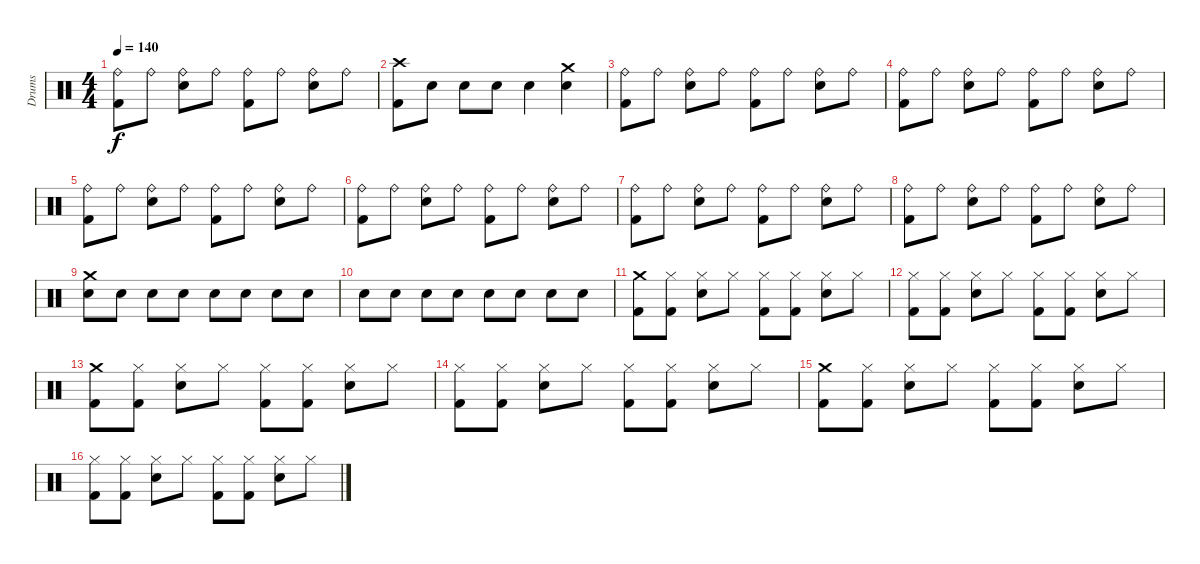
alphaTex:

\track ("Drums" "Drums") {instrument percussion}
\staff {score}
\articulation defaults
\ts (4 4)
\tempo 140
\clef neutral
\ks c
("Ride (bell)" "Kick (hit) 2").8{dy f} "Ride (bell)".8 ("Ride (bell)" "Electric Snare (hit)").8 "Ride (bell)".8 ("Ride (bell)" "Kick (hit) 2").8 "Ride (bell)".8 ("Ride (bell)" "Electric Snare (hit)").8 "Ride (bell)".8 |
("Crash high (hit)" "Kick (hit) 2").8 "Electric Snare (hit)".8 "Electric Snare (hit)".8 "Electric Snare (hit)".8 "Electric Snare (hit)".4 ("Crash medium (hit)" "Electric Snare (hit)").4 |
("Ride (bell)" "Kick (hit) 2").8 "Ride (bell)".8 ("Ride (bell)" "Electric Snare (hit)").8 "Ride (bell)".8 ("Ride (bell)" "Kick (hit) 2").8 "Ride (bell)".8 ("Ride (bell)" "Electric Snare (hit)").8 "Ride (bell)".8 |
("Ride (bell)" "Kick (hit) 2").8 "Ride (bell)".8 ("Ride (bell)" "Electric Snare (hit)").8 "Ride (bell)".8 ("Ride (bell)" "Kick (hit) 2").8 "Ride (bell)".8 ("Ride (bell)" "Electric Snare (hit)").8 "Ride (bell)".8 |
("Ride (bell)" "Kick (hit) 2").8 "Ride (bell)".8 ("Ride (bell)" "Electric Snare (hit)").8 "Ride (bell)".8 ("Ride (bell)" "Kick (hit) 2").8 "Ride (bell)".8 ("Ride (bell)" "Electric Snare (hit)").8 "Ride (bell)".8 |
("Ride (bell)" "Kick (hit) 2").8 "Ride (bell)".8 ("Ride (bell)" "Electric Snare (hit)").8 "Ride (bell)".8 ("Ride (bell)" "Kick (hit) 2").8 "Ride (bell)".8 ("Ride (bell)" "Electric Snare (hit)").8 "Ride (bell)".8 |
("Ride (bell)" "Kick (hit) 2").8 "Ride (bell)".8 ("Ride (bell)" "Electric Snare (hit)").8 "Ride (bell)".8 ("Ride (bell)" "Kick (hit) 2").8 "Ride (bell)".8 ("Ride (bell)" "Electric Snare (hit)").8 "Ride (bell)".8 |
("Ride (bell)" "Kick (hit) 2").8 "Ride (bell)".8 ("Ride (bell)" "Electric Snare (hit)").8 "Ride (bell)".8 ("Ride (bell)" "Kick (hit) 2").8 "Ride (bell)".8 ("Ride (bell)" "Electric Snare (hit)").8 "Ride (bell)".8 |
("Crash medium (hit)" "Electric Snare (hit)").8 "Electric Snare (hit)".8 "Electric Snare (hit)".8 "Electric Snare (hit)".8 "Electric Snare (hit)".8 "Electric Snare (hit)".8 "Electric Snare (hit)".8 "Electric Snare (hit)".8 |
"Electric Snare (hit)".8 "Electric Snare (hit)".8 "Electric Snare (hit)".8 "Electric Snare (hit)".8 "Electric Snare (hit)".8 "Electric Snare (hit)".8 "Electric Snare (hit)".8 "Electric Snare (hit)".8 |
("Crash medium (hit)" "Kick (hit) 2").8 ("Hi-Hat (closed)" "Kick (hit) 2").8 ("Hi-Hat (closed)" "Electric Snare (hit)").8 "Hi-Hat (closed)".8 ("Hi-Hat (closed)" "Kick (hit) 2").8 ("Hi-Hat (closed)" "Kick (hit) 2").8 ("Hi-Hat (closed)" "Electric Snare (hit)").8 "Hi-Hat (closed)".8 |
("Hi-Hat (closed)" "Kick (hit) 2").8 ("Hi-Hat (closed)" "Kick (hit) 2").8 ("Hi-Hat (closed)" "Electric Snare (hit)").8 "Hi-Hat (closed)".8 ("Hi-Hat (closed)" "Kick (hit) 2").8 ("Hi-Hat (closed)" "Kick (hit) 2").8 ("Hi-Hat (closed)" "Electric Snare (hit)").8 "Hi-Hat (closed)".8 |
("Crash medium (hit)" "Kick (hit) 2").8 ("Hi-Hat (closed)" "Kick (hit) 2").8 ("Hi-Hat (closed)" "Electric Snare (hit)").8 "Hi-Hat (closed)".8 ("Hi-Hat (closed)" "Kick (hit) 2").8 ("Hi-Hat (closed)" "Kick (hit) 2").8 ("Hi-Hat (closed)" "Electric Snare (hit)").8 "Hi-Hat (closed)".8 |
("Hi-Hat (closed)" "Kick (hit) 2").8 ("Hi-Hat (closed)" "Kick (hit) 2").8 ("Hi-Hat (closed)" "Electric Snare (hit)").8 "Hi-Hat (closed)".8 ("Hi-Hat (closed)" "Kick (hit) 2").8 ("Hi-Hat (closed)" "Kick (hit) 2").8 ("Hi-Hat (closed)" "Electric Snare (hit)").8 "Hi-Hat (closed)".8 |
("Crash medium (hit)" "Kick (hit) 2").8 ("Hi-Hat (closed)" "Kick (hit) 2").8 ("Hi-Hat (closed)" "Electric Snare (hit)").8 "Hi-Hat (closed)".8 ("Hi-Hat (closed)" "Kick (hit) 2").8 ("Hi-Hat (closed)" "Kick (hit) 2").8 ("Hi-Hat (closed)" "Electric Snare (hit)").8 "Hi-Hat (closed)".8 |
("Hi-Hat (closed)" "Kick (hit) 2").8 ("Hi-Hat (closed)" "Kick (hit) 2").8 ("Hi-Hat (closed)" "Electric Snare (hit)").8 "Hi-Hat (closed)".8 ("Hi-Hat (closed)" "Kick (hit) 2").8 ("Hi-Hat (closed)" "Kick (hit) 2").8 ("Hi-Hat (closed)" "Electric Snare (hit)").8 "Hi-Hat (closed)".8
